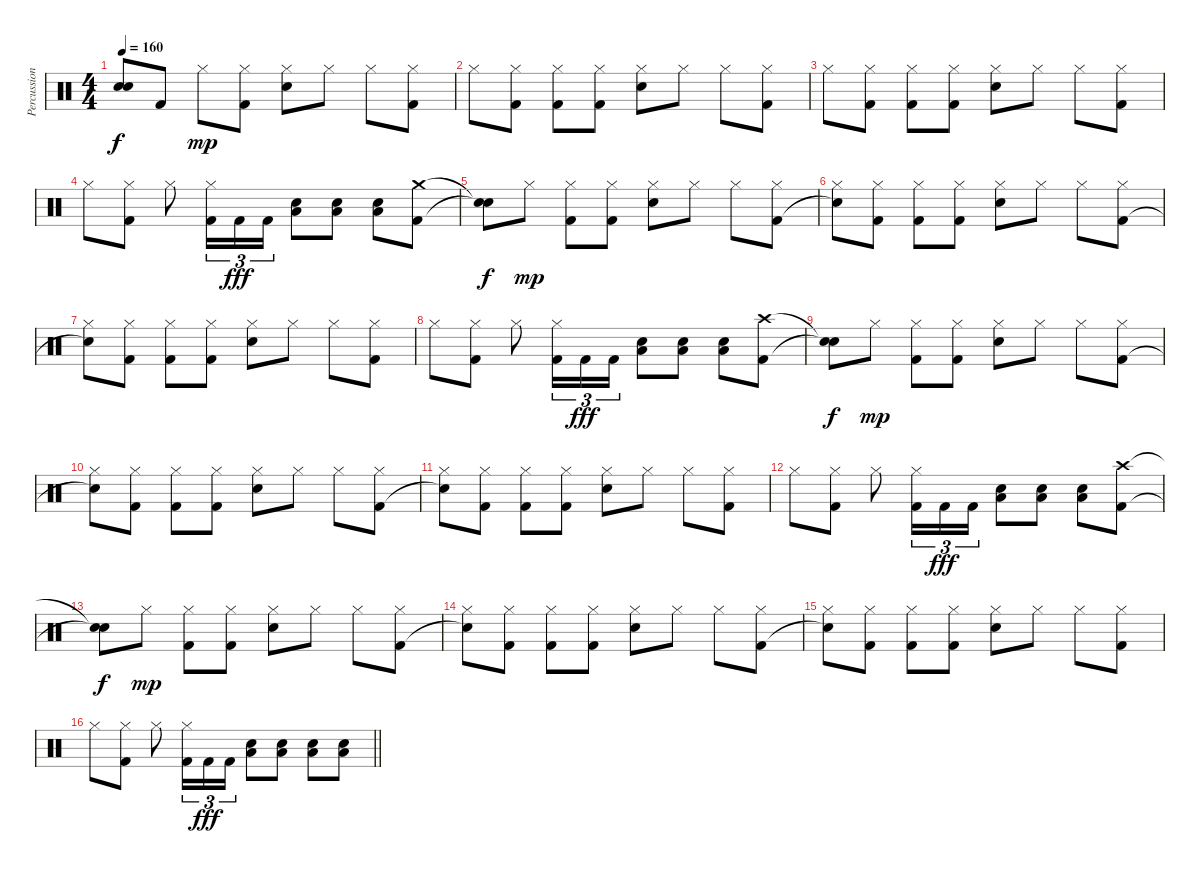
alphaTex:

\track ("Percussion" "Percussion") {instrument percussion}
\staff {score}
\articulation defaults
\ts (4 4)
\tempo 160
\clef neutral
\ks c
("Snare (hit)"{t} "Snare (hit)"{t}).8{dy f} "Kick (hit) 2".8 "Hi-Hat (closed)".8{dy mp} ("Kick (hit) 2" "Hi-Hat (closed)").8 ("Electric Snare (hit)" "Hi-Hat (closed)").8 "Hi-Hat (closed)".8 "Hi-Hat (closed)".8 ("Kick (hit) 2" "Hi-Hat (closed)").8 |
"Hi-Hat (closed)".8 ("Kick (hit) 2" "Hi-Hat (closed)").8 ("Kick (hit) 2" "Hi-Hat (closed)").8 ("Kick (hit) 2" "Hi-Hat (closed)").8 ("Electric Snare (hit)" "Hi-Hat (closed)").8 "Hi-Hat (closed)".8 "Hi-Hat (closed)".8 ("Kick (hit) 2" "Hi-Hat (closed)").8 |
"Hi-Hat (closed)".8 ("Kick (hit) 2" "Hi-Hat (closed)").8 ("Kick (hit) 2" "Hi-Hat (closed)").8 ("Kick (hit) 2" "Hi-Hat (closed)").8 ("Electric Snare (hit)" "Hi-Hat (closed)").8 "Hi-Hat (closed)".8 "Hi-Hat (closed)".8 ("Kick (hit) 2" "Hi-Hat (closed)").8 |
"Hi-Hat (closed)".8 ("Kick (hit) 2" "Hi-Hat (closed)").8 "Hi-Hat (closed)".8 ("Kick (hit) 2" "Hi-Hat (closed)").16{tu (3 2)} "Kick (hit) 2".16{tu (3 2) dy fff} "Kick (hit) 2".16{tu (3 2)} ("Electric Snare (hit)" "Low Tom (hit)").8 ("Electric Snare (hit)" "Low Tom (hit)").8 ("Electric Snare (hit)" "Low Tom (hit)").8 ("Kick (hit) 2" "Crash medium (hit)").8 |
("Snare (hit)"{t} "Snare (hit)"{t}).8{dy f} "Hi-Hat (closed)".8{dy mp} ("Kick (hit) 2" "Hi-Hat (closed)").8 ("Kick (hit) 2" "Hi-Hat (closed)").8 ("Electric Snare (hit)" "Hi-Hat (closed)").8 "Hi-Hat (closed)".8 "Hi-Hat (closed)".8 ("Kick (hit) 2" "Hi-Hat (closed)").8 |
("Snare (hit)"{t} "Hi-Hat (closed)").8 ("Kick (hit) 2" "Hi-Hat (closed)").8 ("Kick (hit) 2" "Hi-Hat (closed)").8 ("Kick (hit) 2" "Hi-Hat (closed)").8 ("Electric Snare (hit)" "Hi-Hat (closed)").8 "Hi-Hat (closed)".8 "Hi-Hat (closed)".8 ("Kick (hit) 2" "Hi-Hat (closed)").8 |
("Snare (hit)"{t} "Hi-Hat (closed)").8 ("Kick (hit) 2" "Hi-Hat (closed)").8 ("Kick (hit) 2" "Hi-Hat (closed)").8 ("Kick (hit) 2" "Hi-Hat (closed)").8 ("Electric Snare (hit)" "Hi-Hat (closed)").8 "Hi-Hat (closed)".8 "Hi-Hat (closed)".8 ("Kick (hit) 2" "Hi-Hat (closed)").8 |
"Hi-Hat (closed)".8 ("Kick (hit) 2" "Hi-Hat (closed)").8 "Hi-Hat (closed)".8 ("Kick (hit) 2" "Hi-Hat (closed)").16{tu (3 2)} "Kick (hit) 2".16{tu (3 2) dy fff} "Kick (hit) 2".16{tu (3 2)} ("Electric Snare (hit)" "Low Tom (hit)").8 ("Electric Snare (hit)" "Low Tom (hit)").8 ("Electric Snare (hit)" "Low Tom (hit)").8 ("Kick (hit) 2" "Crash high (hit)").8 |
("Snare (hit)"{t} "Snare (hit)"{t}).8{dy f} "Hi-Hat (closed)".8{dy mp} ("Kick (hit) 2" "Hi-Hat (closed)").8 ("Kick (hit) 2" "Hi-Hat (closed)").8 ("Electric Snare (hit)" "Hi-Hat (closed)").8 "Hi-Hat (closed)".8 "Hi-Hat (closed)".8 ("Kick (hit) 2" "Hi-Hat (closed)").8 |
("Snare (hit)"{t} "Hi-Hat (closed)").8 ("Kick (hit) 2" "Hi-Hat (closed)").8 ("Kick (hit) 2" "Hi-Hat (closed)").8 ("Kick (hit) 2" "Hi-Hat (closed)").8 ("Electric Snare (hit)" "Hi-Hat (closed)").8 "Hi-Hat (closed)".8 "Hi-Hat (closed)".8 ("Kick (hit) 2" "Hi-Hat (closed)").8 |
("Snare (hit)"{t} "Hi-Hat (closed)").8 ("Kick (hit) 2" "Hi-Hat (closed)").8 ("Kick (hit) 2" "Hi-Hat (closed)").8 ("Kick (hit) 2" "Hi-Hat (closed)").8 ("Electric Snare (hit)" "Hi-Hat (closed)").8 "Hi-Hat (closed)".8 "Hi-Hat (closed)".8 ("Kick (hit) 2" "Hi-Hat (closed)").8 |
"Hi-Hat (closed)".8 ("Kick (hit) 2" "Hi-Hat (closed)").8 "Hi-Hat (closed)".8 ("Kick (hit) 2" "Hi-Hat (closed)").16{tu (3 2)} "Kick (hit) 2".16{tu (3 2) dy fff} "Kick (hit) 2".16{tu (3 2)} ("Electric Snare (hit)" "Low Tom (hit)").8 ("Electric Snare (hit)" "Low Tom (hit)").8 ("Electric Snare (hit)" "Low Tom (hit)").8 ("Kick (hit) 2" "Crash high (hit)").8 |
("Snare (hit)"{t} "Snare (hit)"{t}).8{dy f} "Hi-Hat (closed)".8{dy mp} ("Kick (hit) 2" "Hi-Hat (closed)").8 ("Kick (hit) 2" "Hi-Hat (closed)").8 ("Electric Snare (hit)" "Hi-Hat (closed)").8 "Hi-Hat (closed)".8 "Hi-Hat (closed)".8 ("Kick (hit) 2" "Hi-Hat (closed)").8 |
("Snare (hit)"{t} "Hi-Hat (closed)").8 ("Kick (hit) 2" "Hi-Hat (closed)").8 ("Kick (hit) 2" "Hi-Hat (closed)").8 ("Kick (hit) 2" "Hi-Hat (closed)").8 ("Electric Snare (hit)" "Hi-Hat (closed)").8 "Hi-Hat (closed)".8 "Hi-Hat (closed)".8 ("Kick (hit) 2" "Hi-Hat (closed)").8 |
("Snare (hit)"{t} "Hi-Hat (closed)").8 ("Kick (hit) 2" "Hi-Hat (closed)").8 ("Kick (hit) 2" "Hi-Hat (closed)").8 ("Kick (hit) 2" "Hi-Hat (closed)").8 ("Electric Snare (hit)" "Hi-Hat (closed)").8 "Hi-Hat (closed)".8 "Hi-Hat (closed)".8 ("Kick (hit) 2" "Hi-Hat (closed)").8 |
\barLineRight lightlight "Hi-Hat (closed)".8
("Kick (hit) 2" "Hi-Hat (closed)").8 "Hi-Hat (closed)".8 ("Kick (hit) 2" "Hi-Hat (closed)").16{tu (3 2)} "Kick (hit) 2".16{tu (3 2) dy fff} "Kick (hit) 2".16{tu (3 2)} ("Electric Snare (hit)" "Low Tom (hit)").8 ("Electric Snare (hit)" "Low Tom (hit)").8 ("Electric Snare (hit)" "Low Tom (hit)").8 ("Electric Snare (hit)" "Low Tom (hit)").8
